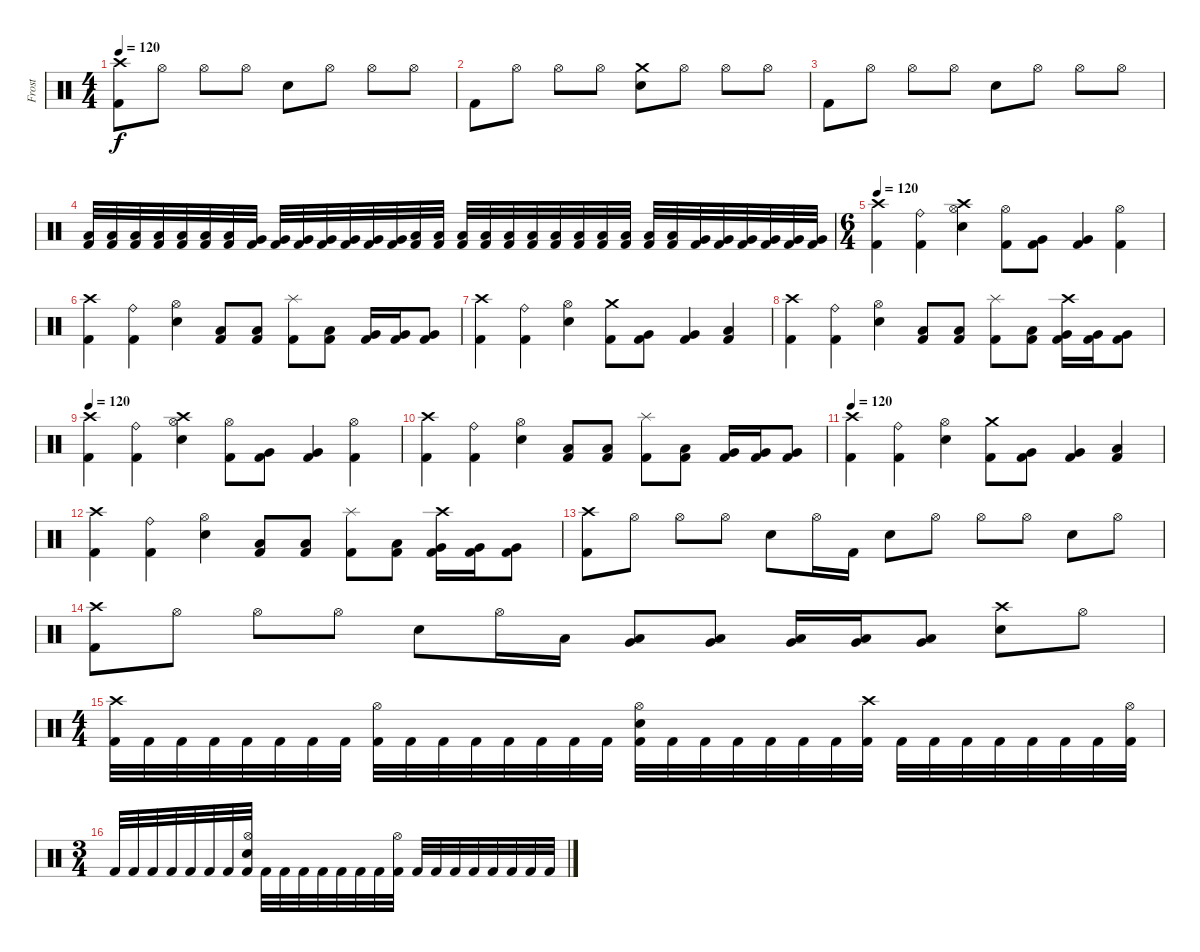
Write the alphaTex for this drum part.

\track ("Frost" "Frost") {instrument percussion}
\staff {score}
\articulation defaults
\ts (4 4)
\tempo 120
\clef neutral
\ks c
("Crash high (hit)" "Kick (hit) 2").8{dy f} "Hi-Hat (open)".8 "Hi-Hat (open)".8 "Hi-Hat (open)".8 "Snare (hit) 2".8 "Hi-Hat (open)".8 "Hi-Hat (open)".8 "Hi-Hat (open)".8 |
"Kick (hit) 2".8 "Hi-Hat (open)".8 "Hi-Hat (open)".8 "Hi-Hat (open)".8 ("Crash medium (hit)" "Snare (hit) 2").8 "Hi-Hat (open)".8 "Hi-Hat (open)".8 "Hi-Hat (open)".8 |
"Kick (hit) 2".8 "Hi-Hat (open)".8 "Hi-Hat (open)".8 "Hi-Hat (open)".8 "Snare (hit) 2".8 "Hi-Hat (open)".8 "Hi-Hat (open)".8 "Hi-Hat (open)".8 |
("Low Tom (hit)" "Kick (hit) 2").32 ("Low Tom (hit)" "Kick (hit) 2").32 ("Low Tom (hit)" "Kick (hit) 2").32 ("Low Tom (hit)" "Kick (hit) 2").32 ("Low Tom (hit)" "Kick (hit) 2").32 ("Low Tom (hit)" "Kick (hit) 2").32 ("Low Tom (hit)" "Kick (hit) 2").32 ("Very Low Tom (hit)" "Kick (hit) 2").32 ("Very Low Tom (hit)" "Kick (hit) 2").32 ("Very Low Tom (hit)" "Kick (hit) 2").32 ("Very Low Tom (hit)" "Kick (hit) 2").32 ("Very Low Tom (hit)" "Kick (hit) 2").32 ("Very Low Tom (hit)" "Kick (hit) 2").32 ("Very Low Tom (hit)" "Kick (hit) 2").32 ("Low Floor Tom (hit)" "Kick (hit) 2").32 ("Low Floor Tom (hit)" "Kick (hit) 2").32 ("Low Floor Tom (hit)" "Kick (hit) 2").32 ("Low Floor Tom (hit)" "Kick (hit) 2").32 ("Low Floor Tom (hit)" "Kick (hit) 2").32 ("Low Floor Tom (hit)" "Kick (hit) 2").32 ("Low Floor Tom (hit)" "Kick (hit) 2").32 ("Low Floor Tom (hit)" "Kick (hit) 2").32 ("Low Floor Tom (hit)" "Kick (hit) 2").32 ("Low Floor Tom (hit)" "Kick (hit) 2").32 ("Low Floor Tom (hit)" "Kick (hit) 2").32 ("Low Floor Tom (hit)" "Kick (hit) 2").32 ("Very Low Tom (hit)" "Kick (hit) 2").32 ("Very Low Tom (hit)" "Kick (hit) 2").32 ("Very Low Tom (hit)" "Kick (hit) 2").32 ("Very Low Tom (hit)" "Kick (hit) 2").32 ("Very Low Tom (hit)" "Kick (hit) 2").32 ("Very Low Tom (hit)" "Kick (hit) 2").32 |
\ts (6 4)
\tempo 120
("Crash high (hit)" "Kick (hit) 2").4 ("Ride (bell)" "Kick (hit) 2").4 ("Crash high (hit)" "Hi-Hat (open)" "Snare (hit) 2").4 ("Hi-Hat (open)" "Kick (hit) 2").8 ("Very Low Tom (hit)" "Kick (hit) 2").8 ("Very Low Tom (hit)" "Kick (hit) 2").4 ("Hi-Hat (open)" "Kick (hit) 2").4 |
("Crash high (hit)" "Kick (hit) 2").4 ("Ride (bell)" "Kick (hit) 2").4 ("Hi-Hat (open)" "Snare (hit) 2").4 ("Low Tom (hit)" "Kick (hit) 2").8 ("Low Tom (hit)" "Kick (hit) 2").8 ("Splash (hit)" "Kick (hit) 2").8 ("Low Tom (hit)" "Kick (hit) 2").8 ("Very Low Tom (hit)" "Kick (hit) 2").16 ("Very Low Tom (hit)" "Kick (hit) 2").16 ("Very Low Tom (hit)" "Kick (hit) 2").8 |
("Crash high (hit)" "Kick (hit) 2").4 ("Ride (bell)" "Kick (hit) 2").4 ("Hi-Hat (open)" "Snare (hit) 2").4 ("Crash medium (hit)" "Kick (hit) 2").8 ("Very Low Tom (hit)" "Kick (hit) 2").8 ("Very Low Tom (hit)" "Kick (hit) 2").4 ("Low Floor Tom (hit)" "Kick (hit) 2").4 |
("Crash high (hit)" "Kick (hit) 2").4 ("Ride (bell)" "Kick (hit) 2").4 ("Hi-Hat (open)" "Snare (hit) 2").4 ("Low Tom (hit)" "Kick (hit) 2").8 ("Low Tom (hit)" "Kick (hit) 2").8 ("Splash (hit)" "Kick (hit) 2").8 ("Low Tom (hit)" "Kick (hit) 2").8 ("Crash high (hit)" "Very Low Tom (hit)" "Kick (hit) 2").16 ("Very Low Tom (hit)" "Kick (hit) 2").16 ("Very Low Tom (hit)" "Kick (hit) 2").8 |
\tempo 120
("Crash high (hit)" "Kick (hit) 2").4 ("Ride (bell)" "Kick (hit) 2").4 ("Crash high (hit)" "Hi-Hat (open)" "Snare (hit) 2").4 ("Hi-Hat (open)" "Kick (hit) 2").8 ("Very Low Tom (hit)" "Kick (hit) 2").8 ("Very Low Tom (hit)" "Kick (hit) 2").4 ("Hi-Hat (open)" "Kick (hit) 2").4 |
("Crash high (hit)" "Kick (hit) 2").4 ("Ride (bell)" "Kick (hit) 2").4 ("Hi-Hat (open)" "Snare (hit) 2").4 ("Low Tom (hit)" "Kick (hit) 2").8 ("Low Tom (hit)" "Kick (hit) 2").8 ("Splash (hit)" "Kick (hit) 2").8 ("Low Tom (hit)" "Kick (hit) 2").8 ("Very Low Tom (hit)" "Kick (hit) 2").16 ("Very Low Tom (hit)" "Kick (hit) 2").16 ("Very Low Tom (hit)" "Kick (hit) 2").8 |
\tempo 120
("Crash high (hit)" "Kick (hit) 2").4 ("Ride (bell)" "Kick (hit) 2").4 ("Hi-Hat (open)" "Snare (hit) 2").4 ("Crash medium (hit)" "Kick (hit) 2").8 ("Very Low Tom (hit)" "Kick (hit) 2").8 ("Very Low Tom (hit)" "Kick (hit) 2").4 ("Low Floor Tom (hit)" "Kick (hit) 2").4 |
("Crash high (hit)" "Kick (hit) 2").4 ("Ride (bell)" "Kick (hit) 2").4 ("Hi-Hat (open)" "Snare (hit) 2").4 ("Low Tom (hit)" "Kick (hit) 2").8 ("Low Tom (hit)" "Kick (hit) 2").8 ("Splash (hit)" "Kick (hit) 2").8 ("Low Tom (hit)" "Kick (hit) 2").8 ("Crash high (hit)" "Very Low Tom (hit)" "Kick (hit) 2").16 ("Very Low Tom (hit)" "Kick (hit) 2").16 ("Very Low Tom (hit)" "Kick (hit) 2").8 |
("Crash high (hit)" "Kick (hit) 2").8 "Hi-Hat (open)".8 "Hi-Hat (open)".8 "Hi-Hat (open)".8 "Snare (hit) 2".8 "Hi-Hat (open)".16 "Kick (hit) 2".16 "Snare (hit) 2".8 "Hi-Hat (open)".8 "Hi-Hat (open)".8 "Hi-Hat (open)".8 "Snare (hit) 2".8 "Hi-Hat (open)".8 |
("Crash high (hit)" "Kick (hit) 2").8 "Hi-Hat (open)".8 "Hi-Hat (open)".8 "Hi-Hat (open)".8 "Snare (hit) 2".8 "Hi-Hat (open)".16 "Low Tom (hit)".16 ("Very Low Tom (hit)" "Low Tom (hit)").8 ("Very Low Tom (hit)" "Low Tom (hit)").8 ("Low Floor Tom (hit)" "Very Low Tom (hit)").16 ("Low Floor Tom (hit)" "Very Low Tom (hit)").16 ("Low Floor Tom (hit)" "Very Low Tom (hit)").8 ("Crash high (hit)" "Snare (hit) 2").8 "Hi-Hat (open)".8 |
\ts (4 4)
("Crash high (hit)" "Kick (hit) 2").32 "Kick (hit) 2".32 "Kick (hit) 2".32 "Kick (hit) 2".32 "Kick (hit) 2".32 "Kick (hit) 2".32 "Kick (hit) 2".32 "Kick (hit) 2".32 ("Hi-Hat (open)" "Kick (hit) 2").32 "Kick (hit) 2".32 "Kick (hit) 2".32 "Kick (hit) 2".32 "Kick (hit) 2".32 "Kick (hit) 2".32 "Kick (hit) 2".32 "Kick (hit) 2".32 ("Hi-Hat (open)" "Snare (hit) 2" "Kick (hit) 2").32 "Kick (hit) 2".32 "Kick (hit) 2".32 "Kick (hit) 2".32 "Kick (hit) 2".32 "Kick (hit) 2".32 "Kick (hit) 2".32 ("Crash high (hit)" "Kick (hit) 2").32 "Kick (hit) 2".32 "Kick (hit) 2".32 "Kick (hit) 2".32 "Kick (hit) 2".32 "Kick (hit) 2".32 "Kick (hit) 2".32 "Kick (hit) 2".32 ("Hi-Hat (open)" "Kick (hit) 2").32 |
\ts (3 4)
"Kick (hit) 2".32 "Kick (hit) 2".32 "Kick (hit) 2".32 "Kick (hit) 2".32 "Kick (hit) 2".32 "Kick (hit) 2".32 "Kick (hit) 2".32 ("Hi-Hat (open)" "Snare (hit) 2" "Kick (hit) 2").32 "Kick (hit) 2".32 "Kick (hit) 2".32 "Kick (hit) 2".32 "Kick (hit) 2".32 "Kick (hit) 2".32 "Kick (hit) 2".32 "Kick (hit) 2".32 ("Hi-Hat (open)" "Kick (hit) 2").32 "Kick (hit) 2".32 "Kick (hit) 2".32 "Kick (hit) 2".32 "Kick (hit) 2".32 "Kick (hit) 2".32 "Kick (hit) 2".32 "Kick (hit) 2".32 "Kick (hit) 2".32
